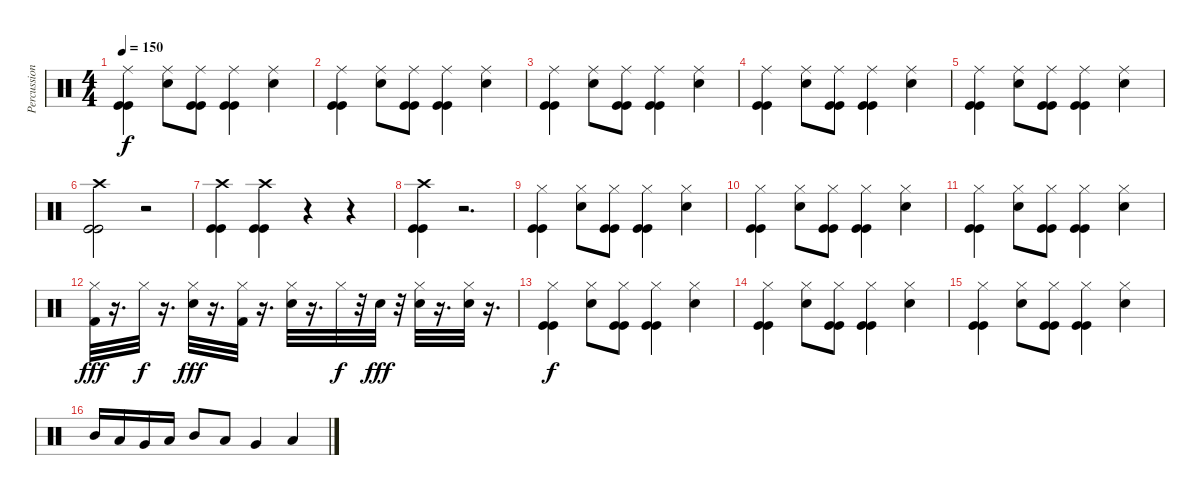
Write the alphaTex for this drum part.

\track ("Percussion" "Percussion") {instrument percussion}
\staff {score}
\articulation defaults
\ts (4 4)
\tempo 150
\clef neutral
\ks c
("Kick (hit)" "Kick (hit)" "Ride (middle)").4{dy f} ("Electric Snare (hit)" "Ride (middle)").8 ("Kick (hit)" "Kick (hit)" "Ride (middle)").8 ("Kick (hit)" "Kick (hit)" "Ride (middle)").4 ("Electric Snare (hit)" "Ride (middle)").4 |
("Kick (hit)" "Kick (hit)" "Ride (middle)").4 ("Electric Snare (hit)" "Ride (middle)").8 ("Kick (hit)" "Kick (hit)" "Ride (middle)").8 ("Kick (hit)" "Kick (hit)" "Ride (middle)").4 ("Electric Snare (hit)" "Ride (middle)").4 |
("Kick (hit)" "Kick (hit)" "Ride (middle)").4 ("Electric Snare (hit)" "Ride (middle)").8 ("Kick (hit)" "Kick (hit)" "Ride (middle)").8 ("Kick (hit)" "Kick (hit)" "Ride (middle)").4 ("Electric Snare (hit)" "Ride (middle)").4 |
("Kick (hit)" "Kick (hit)" "Ride (middle)").4 ("Electric Snare (hit)" "Ride (middle)").8 ("Kick (hit)" "Kick (hit)" "Ride (middle)").8 ("Kick (hit)" "Kick (hit)" "Ride (middle)").4 ("Electric Snare (hit)" "Ride (middle)").4 |
("Kick (hit)" "Kick (hit)" "Ride (middle)").4 ("Electric Snare (hit)" "Ride (middle)").8 ("Kick (hit)" "Kick (hit)" "Ride (middle)").8 ("Kick (hit)" "Kick (hit)" "Ride (middle)").4 ("Electric Snare (hit)" "Ride (middle)").4 |
("Crash high (hit)" "Kick (hit)" "Kick (hit)").2 r.2 |
("Crash high (hit)" "Kick (hit)" "Kick (hit)").4 ("Crash high (hit)" "Kick (hit)" "Kick (hit)").4 r.4 r.4 |
("Crash high (hit)" "Kick (hit)" "Kick (hit)").4 r.2{d} |
("Kick (hit)" "Kick (hit)" "Hi-Hat (closed)").4 ("Electric Snare (hit)" "Hi-Hat (closed)").8 ("Kick (hit)" "Kick (hit)" "Hi-Hat (closed)").8 ("Kick (hit)" "Kick (hit)" "Hi-Hat (closed)").4 ("Electric Snare (hit)" "Hi-Hat (closed)").4 |
("Kick (hit)" "Kick (hit)" "Hi-Hat (closed)").4 ("Electric Snare (hit)" "Hi-Hat (closed)").8 ("Kick (hit)" "Kick (hit)" "Hi-Hat (closed)").8 ("Kick (hit)" "Kick (hit)" "Hi-Hat (closed)").4 ("Electric Snare (hit)" "Hi-Hat (closed)").4 |
("Kick (hit)" "Kick (hit)" "Hi-Hat (closed)").4 ("Electric Snare (hit)" "Hi-Hat (closed)").8 ("Kick (hit)" "Kick (hit)" "Hi-Hat (closed)").8 ("Kick (hit)" "Kick (hit)" "Hi-Hat (closed)").4 ("Electric Snare (hit)" "Hi-Hat (closed)").4 |
("Kick (hit) 2" "Hi-Hat (closed)").32{dy fff} r.16{d} "Hi-Hat (closed)".32{dy f} r.16{d} ("Hi-Hat (closed)" "Electric Snare (hit)").32{dy fff} r.16{d} ("Kick (hit) 2" "Hi-Hat (closed)").32 r.16{d} ("Electric Snare (hit)" "Hi-Hat (closed)").32 r.16{d} "Hi-Hat (closed)".32{dy f} r.32 "Electric Snare (hit)".32{dy fff} r.32 ("Hi-Hat (closed)" "Electric Snare (hit)").32 r.16{d} ("Hi-Hat (closed)" "Electric Snare (hit)").32 r.16{d} |
("Kick (hit)" "Kick (hit)" "Hi-Hat (closed)").4{dy f} ("Electric Snare (hit)" "Hi-Hat (closed)").8 ("Kick (hit)" "Kick (hit)" "Hi-Hat (closed)").8 ("Kick (hit)" "Kick (hit)" "Hi-Hat (closed)").4 ("Electric Snare (hit)" "Hi-Hat (closed)").4 |
("Kick (hit)" "Kick (hit)" "Hi-Hat (closed)").4 ("Electric Snare (hit)" "Hi-Hat (closed)").8 ("Kick (hit)" "Kick (hit)" "Hi-Hat (closed)").8 ("Kick (hit)" "Kick (hit)" "Hi-Hat (closed)").4 ("Electric Snare (hit)" "Hi-Hat (closed)").4 |
("Kick (hit)" "Kick (hit)" "Hi-Hat (closed)").4 ("Electric Snare (hit)" "Hi-Hat (closed)").8 ("Kick (hit)" "Kick (hit)" "Hi-Hat (closed)").8 ("Kick (hit)" "Kick (hit)" "Hi-Hat (closed)").4 ("Electric Snare (hit)" "Hi-Hat (closed)").4 |
"Mid Tom (hit)".16 "Low Tom (hit)".16 "Very Low Tom (hit)".16 "Low Floor Tom (hit)".16 "Mid Tom (hit)".8 "Low Tom (hit)".8 "Very Low Tom (hit)".4 "Low Floor Tom (hit)".4
